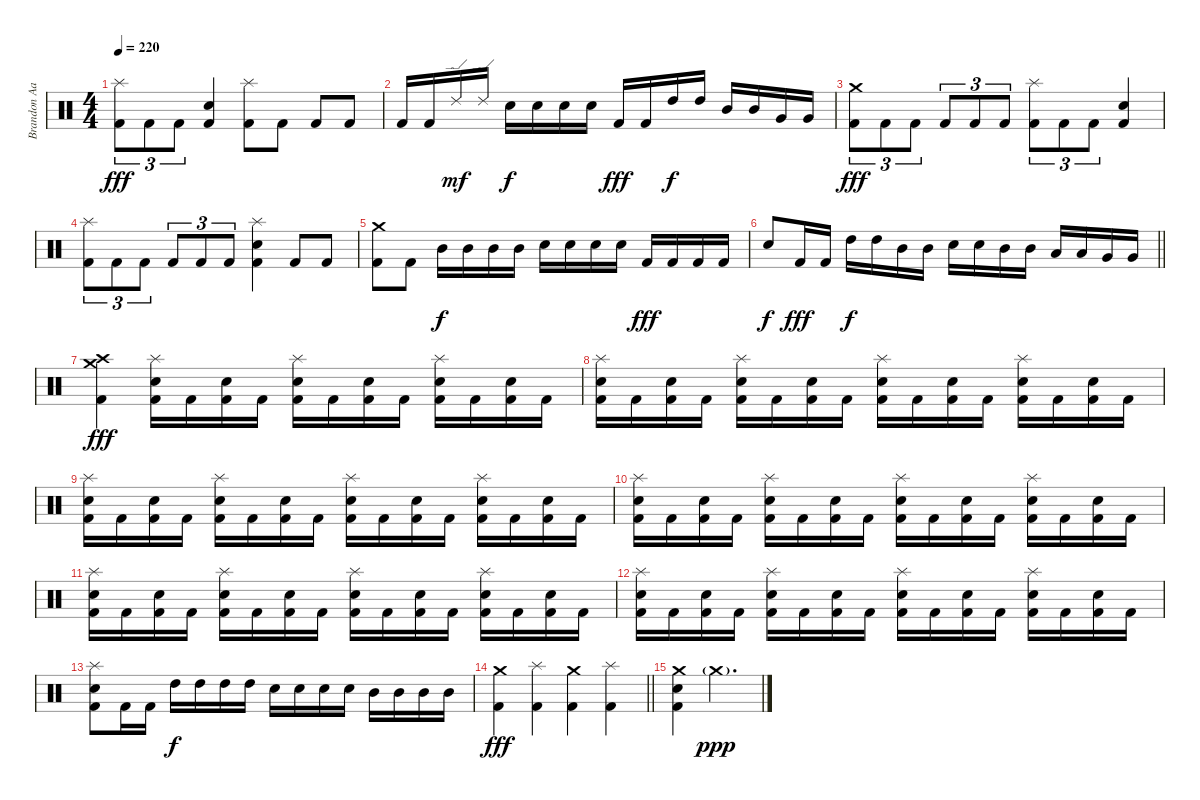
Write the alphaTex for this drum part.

\track ("Brandon Aaron Burkhalter" "Brandon Aa") {instrument percussion}
\staff {score}
\articulation defaults
\ts (4 4)
\tempo 220
\clef neutral
\ks c
("Splash (hit)" "Kick (hit) 2").8{tu (3 2) dy fff} "Kick (hit) 2".8{tu (3 2)} "Kick (hit) 2".8{tu (3 2)} ("Snare (hit) 2" "Kick (hit) 2").4 ("Splash (hit)" "Kick (hit) 2").8 "Kick (hit) 2".8 "Kick (hit) 2".8 "Kick (hit) 2".8 |
"Kick (hit) 2".16 "Kick (hit) 2".16 "Ride (edge) 2".16{dy mf} "Ride (edge) 2".16 "Snare (hit) 2".16{dy f} "Snare (hit) 2".16 "Snare (hit) 2".16 "Snare (hit) 2".16 "Kick (hit) 2".16{dy fff} "Kick (hit) 2".16 "High Tom (hit)".16{dy f} "High Tom (hit)".16 "Mid Tom (hit)".16 "Mid Tom (hit)".16 "Very Low Tom (hit)".16 "Very Low Tom (hit)".16 |
("Crash medium (hit)" "Kick (hit) 2").8{tu (3 2) dy fff} "Kick (hit) 2".8{tu (3 2)} "Kick (hit) 2".8{tu (3 2)} "Kick (hit) 2".8{tu (3 2)} "Kick (hit) 2".8{tu (3 2)} "Kick (hit) 2".8{tu (3 2)} ("Splash (hit)" "Kick (hit) 2").8{tu (3 2)} "Kick (hit) 2".8{tu (3 2)} "Kick (hit) 2".8{tu (3 2)} ("Snare (hit) 2" "Kick (hit) 2").4 |
("Splash (hit)" "Kick (hit) 2").8{tu (3 2)} "Kick (hit) 2".8{tu (3 2)} "Kick (hit) 2".8{tu (3 2)} "Kick (hit) 2".8{tu (3 2)} "Kick (hit) 2".8{tu (3 2)} "Kick (hit) 2".8{tu (3 2)} ("Splash (hit)" "Snare (hit) 2" "Kick (hit) 2").4 "Kick (hit) 2".8 "Kick (hit) 2".8 |
("Crash medium (hit)" "Kick (hit) 2").8 "Kick (hit) 2".8 "Mid Tom (hit)".16{dy f} "Mid Tom (hit)".16 "Mid Tom (hit)".16 "Mid Tom (hit)".16 "Snare (hit) 2".16 "Snare (hit) 2".16 "Snare (hit) 2".16 "Snare (hit) 2".16 "Kick (hit) 2".16{dy fff} "Kick (hit) 2".16 "Kick (hit) 2".16 "Kick (hit) 2".16 |
\barLineRight lightlight "Snare (hit) 2".8{dy f} "Kick (hit) 2".16{dy fff} "Kick (hit) 2".16 "High Tom (hit)".16{dy f} "High Tom (hit)".16 "Mid Tom (hit)".16 "Mid Tom (hit)".16 "Snare (hit) 2".16 "Snare (hit) 2".16 "Mid Tom (hit)".16 "Mid Tom (hit)".16 "Low Tom (hit)".16 "Low Tom (hit)".16 "Very Low Tom (hit)".16 "Very Low Tom (hit)".16
|
("Crash medium (hit)" "Crash high (hit)" "Kick (hit) 2").4{dy fff} ("Splash (hit)" "Snare (hit) 2" "Kick (hit) 2").16 "Kick (hit) 2".16 ("Snare (hit) 2" "Kick (hit) 2").16 "Kick (hit) 2".16 ("Splash (hit)" "Snare (hit) 2" "Kick (hit) 2").16 "Kick (hit) 2".16 ("Snare (hit) 2" "Kick (hit) 2").16 "Kick (hit) 2".16 ("Splash (hit)" "Snare (hit) 2" "Kick (hit) 2").16 "Kick (hit) 2".16 ("Snare (hit) 2" "Kick (hit) 2").16 "Kick (hit) 2".16 |
("Splash (hit)" "Snare (hit) 2" "Kick (hit) 2").16 "Kick (hit) 2".16 ("Snare (hit) 2" "Kick (hit) 2").16 "Kick (hit) 2".16 ("Splash (hit)" "Snare (hit) 2" "Kick (hit) 2").16 "Kick (hit) 2".16 ("Snare (hit) 2" "Kick (hit) 2").16 "Kick (hit) 2".16 ("Splash (hit)" "Snare (hit) 2" "Kick (hit) 2").16 "Kick (hit) 2".16 ("Snare (hit) 2" "Kick (hit) 2").16 "Kick (hit) 2".16 ("Splash (hit)" "Snare (hit) 2" "Kick (hit) 2").16 "Kick (hit) 2".16 ("Snare (hit) 2" "Kick (hit) 2").16 "Kick (hit) 2".16 |
("Splash (hit)" "Snare (hit) 2" "Kick (hit) 2").16 "Kick (hit) 2".16 ("Snare (hit) 2" "Kick (hit) 2").16 "Kick (hit) 2".16 ("Splash (hit)" "Snare (hit) 2" "Kick (hit) 2").16 "Kick (hit) 2".16 ("Snare (hit) 2" "Kick (hit) 2").16 "Kick (hit) 2".16 ("Splash (hit)" "Snare (hit) 2" "Kick (hit) 2").16 "Kick (hit) 2".16 ("Snare (hit) 2" "Kick (hit) 2").16 "Kick (hit) 2".16 ("Splash (hit)" "Snare (hit) 2" "Kick (hit) 2").16 "Kick (hit) 2".16 ("Snare (hit) 2" "Kick (hit) 2").16 "Kick (hit) 2".16 |
("Splash (hit)" "Snare (hit) 2" "Kick (hit) 2").16 "Kick (hit) 2".16 ("Snare (hit) 2" "Kick (hit) 2").16 "Kick (hit) 2".16 ("Splash (hit)" "Snare (hit) 2" "Kick (hit) 2").16 "Kick (hit) 2".16 ("Snare (hit) 2" "Kick (hit) 2").16 "Kick (hit) 2".16 ("Splash (hit)" "Snare (hit) 2" "Kick (hit) 2").16 "Kick (hit) 2".16 ("Snare (hit) 2" "Kick (hit) 2").16 "Kick (hit) 2".16 ("Splash (hit)" "Snare (hit) 2" "Kick (hit) 2").16 "Kick (hit) 2".16 ("Snare (hit) 2" "Kick (hit) 2").16 "Kick (hit) 2".16 |
("Splash (hit)" "Snare (hit) 2" "Kick (hit) 2").16 "Kick (hit) 2".16 ("Snare (hit) 2" "Kick (hit) 2").16 "Kick (hit) 2".16 ("Splash (hit)" "Snare (hit) 2" "Kick (hit) 2").16 "Kick (hit) 2".16 ("Snare (hit) 2" "Kick (hit) 2").16 "Kick (hit) 2".16 ("Splash (hit)" "Snare (hit) 2" "Kick (hit) 2").16 "Kick (hit) 2".16 ("Snare (hit) 2" "Kick (hit) 2").16 "Kick (hit) 2".16 ("Splash (hit)" "Snare (hit) 2" "Kick (hit) 2").16 "Kick (hit) 2".16 ("Snare (hit) 2" "Kick (hit) 2").16 "Kick (hit) 2".16 |
("Splash (hit)" "Snare (hit) 2" "Kick (hit) 2").16 "Kick (hit) 2".16 ("Snare (hit) 2" "Kick (hit) 2").16 "Kick (hit) 2".16 ("Splash (hit)" "Snare (hit) 2" "Kick (hit) 2").16 "Kick (hit) 2".16 ("Snare (hit) 2" "Kick (hit) 2").16 "Kick (hit) 2".16 ("Splash (hit)" "Snare (hit) 2" "Kick (hit) 2").16 "Kick (hit) 2".16 ("Snare (hit) 2" "Kick (hit) 2").16 "Kick (hit) 2".16 ("Splash (hit)" "Snare (hit) 2" "Kick (hit) 2").16 "Kick (hit) 2".16 ("Snare (hit) 2" "Kick (hit) 2").16 "Kick (hit) 2".16 |
("Splash (hit)" "Snare (hit) 2" "Kick (hit) 2").8 "Kick (hit) 2".16 "Kick (hit) 2".16 "High Tom (hit)".16{dy f} "High Tom (hit)".16 "High Tom (hit)".16 "High Tom (hit)".16 "Snare (hit) 2".16 "Snare (hit) 2".16 "Snare (hit) 2".16 "Snare (hit) 2".16 "Mid Tom (hit)".16 "Mid Tom (hit)".16 "Mid Tom (hit)".16 "Mid Tom (hit)".16 |
\barLineRight lightlight
("Crash medium (hit)" "Kick (hit) 2").4{dy fff} ("Splash (hit)" "Kick (hit) 2").4 ("Crash medium (hit)" "Kick (hit) 2").4 ("Splash (hit)" "Kick (hit) 2").4 |
("Crash medium (hit)" "Snare (hit) 2" "Kick (hit) 2").4 "Crash medium (hit)"{g}.2{d dy ppp}
